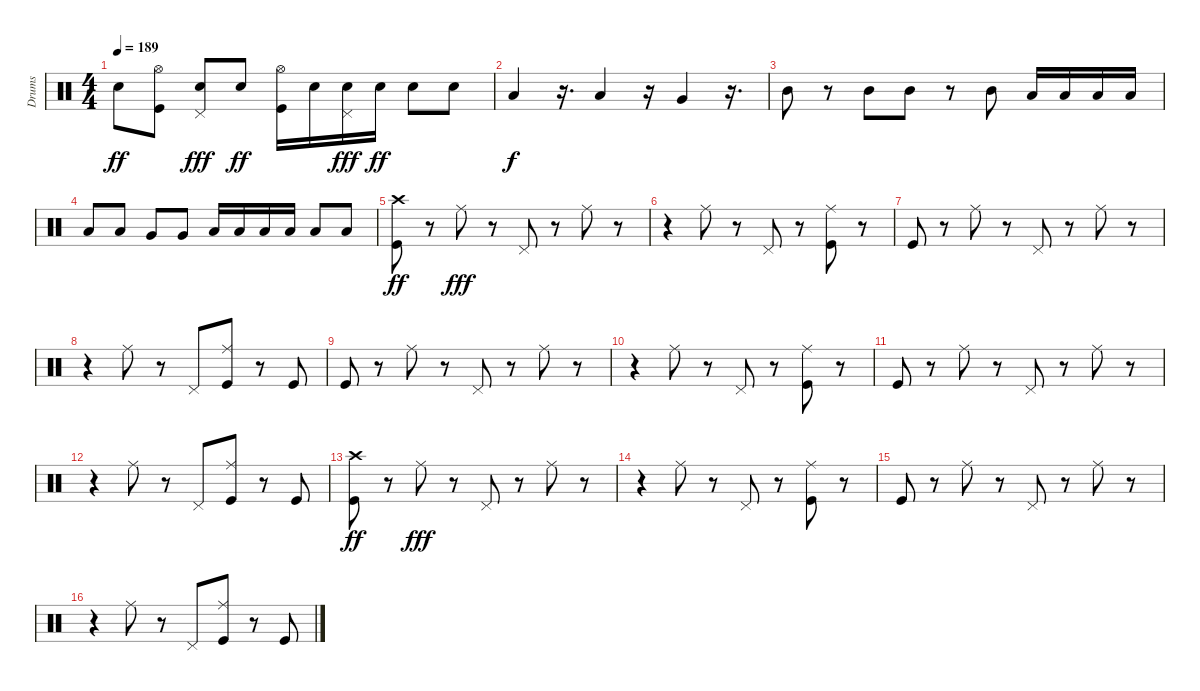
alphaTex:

\track ("Drums" "Drums") {instrument percussion}
\staff {score}
\articulation defaults
\ts (4 4)
\tempo 189
\clef neutral
\ks c "Snare (hit) 2".8{dy ff}
("Kick (hit)" "Hi-Hat (open)").8 ("Snare (hit) 2" "Pedal Hi-Hat (hit)").8{dy fff} "Snare (hit) 2".8{dy ff} ("Kick (hit)" "Hi-Hat (open)").16 "Snare (hit) 2".16 ("Snare (hit) 2" "Pedal Hi-Hat (hit)").16{dy fff} "Snare (hit) 2".16{dy ff} "Snare (hit) 2".8 "Snare (hit) 2".8 |
"Low Floor Tom (hit)".4{dy f} r.16{d} "Low Floor Tom (hit)".4 r.16 "Very Low Tom (hit)".4 r.16{d} |
"Mid Tom (hit)".8 r.8 "Mid Tom (hit)".8 "Mid Tom (hit)".8 r.8 "Mid Tom (hit)".8 "Low Tom (hit)".16 "Low Tom (hit)".16 "Low Tom (hit)".16 "Low Tom (hit)".16 |
"Low Tom (hit)".8 "Low Tom (hit)".8 "Very Low Tom (hit)".8 "Very Low Tom (hit)".8 "Low Floor Tom (hit)".16 "Low Floor Tom (hit)".16 "Low Floor Tom (hit)".16 "Low Floor Tom (hit)".16 "Low Floor Tom (hit)".8 "Low Floor Tom (hit)".8 |
("Kick (hit)" "Crash high (hit)").8{dy ff} r.8 "Ride (middle)".8{dy fff} r.8 "Pedal Hi-Hat (hit)".8 r.8 "Ride (middle)".8 r.8 |
r.4 "Ride (middle)".8 r.8 "Pedal Hi-Hat (hit)".8 r.8 ("Kick (hit)" "Ride (middle)").8 r.8 |
"Kick (hit)".8 r.8 "Ride (middle)".8 r.8 "Pedal Hi-Hat (hit)".8 r.8 "Ride (middle)".8 r.8 |
r.4 "Ride (middle)".8 r.8 "Pedal Hi-Hat (hit)".8 ("Kick (hit)" "Ride (middle)").8 r.8 "Kick (hit)".8 |
"Kick (hit)".8 r.8 "Ride (middle)".8 r.8 "Pedal Hi-Hat (hit)".8 r.8 "Ride (middle)".8 r.8 |
r.4 "Ride (middle)".8 r.8 "Pedal Hi-Hat (hit)".8 r.8 ("Kick (hit)" "Ride (middle)").8 r.8 |
"Kick (hit)".8 r.8 "Ride (middle)".8 r.8 "Pedal Hi-Hat (hit)".8 r.8 "Ride (middle)".8 r.8 |
r.4 "Ride (middle)".8 r.8 "Pedal Hi-Hat (hit)".8 ("Kick (hit)" "Ride (middle)").8 r.8 "Kick (hit)".8 |
("Kick (hit)" "Crash high (hit)").8{dy ff} r.8 "Ride (middle)".8{dy fff} r.8 "Pedal Hi-Hat (hit)".8 r.8 "Ride (middle)".8 r.8 |
r.4 "Ride (middle)".8 r.8 "Pedal Hi-Hat (hit)".8 r.8 ("Kick (hit)" "Ride (middle)").8 r.8 |
"Kick (hit)".8 r.8 "Ride (middle)".8 r.8 "Pedal Hi-Hat (hit)".8 r.8 "Ride (middle)".8 r.8 |
r.4 "Ride (middle)".8 r.8 "Pedal Hi-Hat (hit)".8 ("Kick (hit)" "Ride (middle)").8 r.8 "Kick (hit)".8
